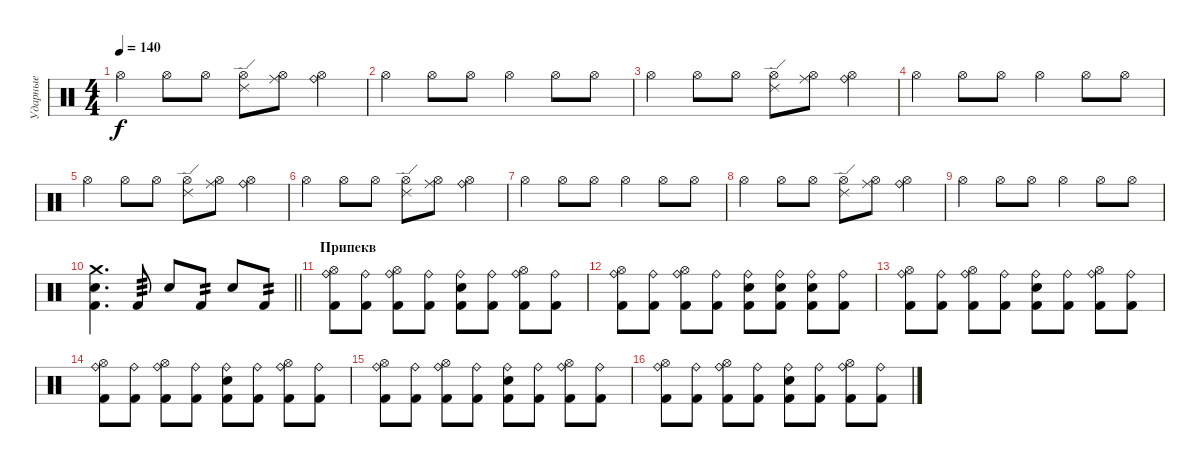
\track ("Ударные" "Ударные") {instrument percussion}
\staff {score}
\articulation defaults
\ts (4 4)
\tempo 140
\clef neutral
\ks c "Hi-Hat (open)".4{dy f} "Hi-Hat (open)".8 "Hi-Hat (open)".8
("Hi-Hat (open)" "Ride (edge) 2").8 ("Hi-Hat (open)" "Ride (middle)").8 ("Hi-Hat (open)" "Ride (bell)").4 |
"Hi-Hat (open)".4 "Hi-Hat (open)".8 "Hi-Hat (open)".8 "Hi-Hat (open)".4 "Hi-Hat (open)".8 "Hi-Hat (open)".8 |
"Hi-Hat (open)".4 "Hi-Hat (open)".8 "Hi-Hat (open)".8 ("Hi-Hat (open)" "Ride (edge) 2").8 ("Hi-Hat (open)" "Ride (middle)").8 ("Hi-Hat (open)" "Ride (bell)").4 |
"Hi-Hat (open)".4 "Hi-Hat (open)".8 "Hi-Hat (open)".8 "Hi-Hat (open)".4 "Hi-Hat (open)".8 "Hi-Hat (open)".8 |
"Hi-Hat (open)".4 "Hi-Hat (open)".8 "Hi-Hat (open)".8 ("Hi-Hat (open)" "Ride (edge) 2").8 ("Hi-Hat (open)" "Ride (middle)").8 ("Hi-Hat (open)" "Ride (bell)").4 |
"Hi-Hat (open)".4 "Hi-Hat (open)".8 "Hi-Hat (open)".8 ("Hi-Hat (open)" "Ride (edge) 2").8 ("Hi-Hat (open)" "Ride (middle)").8 ("Hi-Hat (open)" "Ride (bell)").4 |
"Hi-Hat (open)".4 "Hi-Hat (open)".8 "Hi-Hat (open)".8 "Hi-Hat (open)".4 "Hi-Hat (open)".8 "Hi-Hat (open)".8 |
"Hi-Hat (open)".4 "Hi-Hat (open)".8 "Hi-Hat (open)".8 ("Hi-Hat (open)" "Ride (edge) 2").8 ("Hi-Hat (open)" "Ride (middle)").8 ("Hi-Hat (open)" "Ride (bell)").4 |
"Hi-Hat (open)".4 "Hi-Hat (open)".8 "Hi-Hat (open)".8 "Hi-Hat (open)".4 "Hi-Hat (open)".8 "Hi-Hat (open)".8 |
\barLineRight lightlight
("Kick (hit) 2" "Snare (hit) 2" "Crash medium (hit)").4{d volume 14} "Kick (hit) 2".8{tp 3} "Snare (hit) 2".8 "Kick (hit) 2".8{tp 2} "Snare (hit) 2".8 "Kick (hit) 2".8{tp 2} |
\section ("" "Припекв")
("Kick (hit) 2" "Ride (bell)" "Hi-Hat (open)").8 ("Kick (hit) 2" "Ride (bell)").8 ("Kick (hit) 2" "Ride (bell)" "Hi-Hat (open)").8 ("Kick (hit) 2" "Ride (bell)").8 ("Kick (hit) 2" "Ride (bell)" "Snare (hit) 2").8 ("Kick (hit) 2" "Ride (bell)").8 ("Kick (hit) 2" "Ride (bell)" "Hi-Hat (open)").8 ("Kick (hit) 2" "Ride (bell)").8 |
("Kick (hit) 2" "Ride (bell)" "Hi-Hat (open)").8 ("Kick (hit) 2" "Ride (bell)").8 ("Kick (hit) 2" "Ride (bell)" "Hi-Hat (open)").8 ("Kick (hit) 2" "Ride (bell)").8 ("Kick (hit) 2" "Ride (bell)" "Snare (hit) 2").8 ("Kick (hit) 2" "Ride (bell)" "Snare (hit) 2").8 ("Kick (hit) 2" "Ride (bell)" "Snare (hit) 2").8 ("Kick (hit) 2" "Ride (bell)").8 |
("Kick (hit) 2" "Ride (bell)" "Hi-Hat (open)").8 ("Kick (hit) 2" "Ride (bell)").8 ("Kick (hit) 2" "Ride (bell)" "Hi-Hat (open)").8 ("Kick (hit) 2" "Ride (bell)").8 ("Kick (hit) 2" "Ride (bell)" "Snare (hit) 2").8 ("Kick (hit) 2" "Ride (bell)").8 ("Kick (hit) 2" "Ride (bell)" "Hi-Hat (open)").8 ("Kick (hit) 2" "Ride (bell)").8 |
("Kick (hit) 2" "Ride (bell)" "Hi-Hat (open)").8 ("Kick (hit) 2" "Ride (bell)").8 ("Kick (hit) 2" "Ride (bell)" "Hi-Hat (open)").8 ("Kick (hit) 2" "Ride (bell)").8 ("Kick (hit) 2" "Ride (bell)" "Snare (hit) 2").8 ("Kick (hit) 2" "Ride (bell)").8 ("Kick (hit) 2" "Ride (bell)" "Hi-Hat (open)").8 ("Kick (hit) 2" "Ride (bell)").8 |
("Kick (hit) 2" "Ride (bell)" "Hi-Hat (open)").8 ("Kick (hit) 2" "Ride (bell)").8 ("Kick (hit) 2" "Ride (bell)" "Hi-Hat (open)").8 ("Kick (hit) 2" "Ride (bell)").8 ("Kick (hit) 2" "Ride (bell)" "Snare (hit) 2").8 ("Kick (hit) 2" "Ride (bell)").8 ("Kick (hit) 2" "Ride (bell)" "Hi-Hat (open)").8 ("Kick (hit) 2" "Ride (bell)").8 |
("Kick (hit) 2" "Ride (bell)" "Hi-Hat (open)").8 ("Kick (hit) 2" "Ride (bell)").8 ("Kick (hit) 2" "Ride (bell)" "Hi-Hat (open)").8 ("Kick (hit) 2" "Ride (bell)").8 ("Kick (hit) 2" "Ride (bell)" "Snare (hit) 2").8 ("Kick (hit) 2" "Ride (bell)").8 ("Kick (hit) 2" "Ride (bell)" "Hi-Hat (open)").8 ("Kick (hit) 2" "Ride (bell)").8
